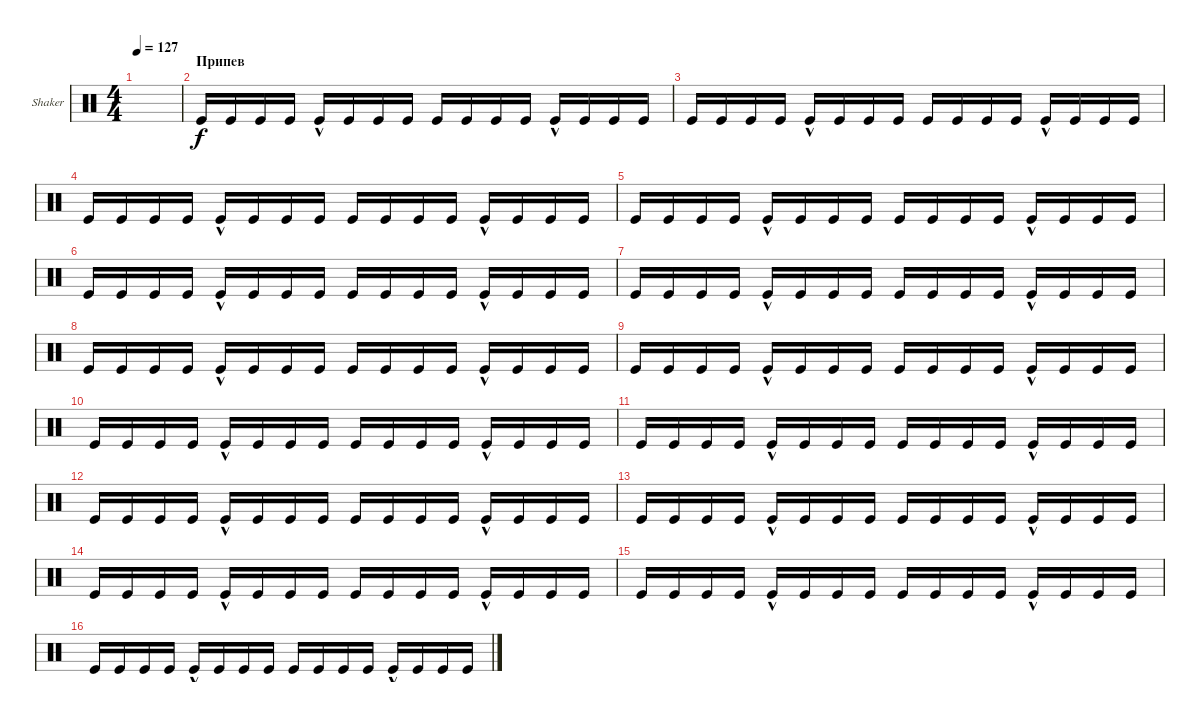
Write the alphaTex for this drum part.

\defaultSystemsLayout 4
\bracketExtendMode groupsimilarinstruments
\firstSystemTrackNameOrientation horizontal
\otherSystemsTrackNameOrientation horizontal
\track ("Shaker" "Shaker") {instrument percussion}
\staff {score}
\articulation defaults
\ts (4 4)
\tempo 127
\clef neutral
\scale
0.333333
\ks c
|
\section ("" "Припев")
\scale
0.333333 "Kick (hit)".16 "Kick (hit)".16 "Kick (hit)".16 "Kick (hit)".16 "Kick (hit)"{hac}.16 "Kick (hit)".16 "Kick (hit)".16 "Kick (hit)".16 "Kick (hit)".16 "Kick (hit)".16 "Kick (hit)".16 "Kick (hit)".16 "Kick (hit)"{hac}.16 "Kick (hit)".16 "Kick (hit)".16 "Kick (hit)".16 |
\scale
0.333333 "Kick (hit)".16 "Kick (hit)".16 "Kick (hit)".16 "Kick (hit)".16 "Kick (hit)"{hac}.16 "Kick (hit)".16 "Kick (hit)".16 "Kick (hit)".16 "Kick (hit)".16 "Kick (hit)".16 "Kick (hit)".16 "Kick (hit)".16 "Kick (hit)"{hac}.16 "Kick (hit)".16 "Kick (hit)".16 "Kick (hit)".16 |
\scale
0.333333 "Kick (hit)".16 "Kick (hit)".16 "Kick (hit)".16 "Kick (hit)".16 "Kick (hit)"{hac}.16 "Kick (hit)".16 "Kick (hit)".16 "Kick (hit)".16 "Kick (hit)".16 "Kick (hit)".16 "Kick (hit)".16 "Kick (hit)".16 "Kick (hit)"{hac}.16 "Kick (hit)".16 "Kick (hit)".16 "Kick (hit)".16 |
\scale
0.333333 "Kick (hit)".16 "Kick (hit)".16 "Kick (hit)".16 "Kick (hit)".16 "Kick (hit)"{hac}.16 "Kick (hit)".16 "Kick (hit)".16 "Kick (hit)".16 "Kick (hit)".16 "Kick (hit)".16 "Kick (hit)".16 "Kick (hit)".16 "Kick (hit)"{hac}.16 "Kick (hit)".16 "Kick (hit)".16 "Kick (hit)".16 |
\scale
0.333333 "Kick (hit)".16 "Kick (hit)".16 "Kick (hit)".16 "Kick (hit)".16 "Kick (hit)"{hac}.16 "Kick (hit)".16 "Kick (hit)".16 "Kick (hit)".16 "Kick (hit)".16 "Kick (hit)".16 "Kick (hit)".16 "Kick (hit)".16 "Kick (hit)"{hac}.16 "Kick (hit)".16 "Kick (hit)".16 "Kick (hit)".16 |
\scale
0.333333 "Kick (hit)".16 "Kick (hit)".16 "Kick (hit)".16 "Kick (hit)".16 "Kick (hit)"{hac}.16 "Kick (hit)".16 "Kick (hit)".16 "Kick (hit)".16 "Kick (hit)".16 "Kick (hit)".16 "Kick (hit)".16 "Kick (hit)".16 "Kick (hit)"{hac}.16 "Kick (hit)".16 "Kick (hit)".16 "Kick (hit)".16 |
\scale
0.333333 "Kick (hit)".16 "Kick (hit)".16 "Kick (hit)".16 "Kick (hit)".16 "Kick (hit)"{hac}.16 "Kick (hit)".16 "Kick (hit)".16 "Kick (hit)".16 "Kick (hit)".16 "Kick (hit)".16 "Kick (hit)".16 "Kick (hit)".16 "Kick (hit)"{hac}.16 "Kick (hit)".16 "Kick (hit)".16 "Kick (hit)".16 |
\scale
0.333333 "Kick (hit)".16 "Kick (hit)".16 "Kick (hit)".16 "Kick (hit)".16 "Kick (hit)"{hac}.16 "Kick (hit)".16 "Kick (hit)".16 "Kick (hit)".16 "Kick (hit)".16 "Kick (hit)".16 "Kick (hit)".16 "Kick (hit)".16 "Kick (hit)"{hac}.16 "Kick (hit)".16 "Kick (hit)".16 "Kick (hit)".16 |
\scale
0.333333 "Kick (hit)".16 "Kick (hit)".16 "Kick (hit)".16 "Kick (hit)".16 "Kick (hit)"{hac}.16 "Kick (hit)".16 "Kick (hit)".16 "Kick (hit)".16 "Kick (hit)".16 "Kick (hit)".16 "Kick (hit)".16 "Kick (hit)".16 "Kick (hit)"{hac}.16 "Kick (hit)".16 "Kick (hit)".16 "Kick (hit)".16 |
\scale
0.333333 "Kick (hit)".16 "Kick (hit)".16 "Kick (hit)".16 "Kick (hit)".16 "Kick (hit)"{hac}.16 "Kick (hit)".16 "Kick (hit)".16 "Kick (hit)".16 "Kick (hit)".16 "Kick (hit)".16 "Kick (hit)".16 "Kick (hit)".16 "Kick (hit)"{hac}.16 "Kick (hit)".16 "Kick (hit)".16 "Kick (hit)".16 |
\scale
0.333333 "Kick (hit)".16 "Kick (hit)".16 "Kick (hit)".16 "Kick (hit)".16 "Kick (hit)"{hac}.16 "Kick (hit)".16 "Kick (hit)".16 "Kick (hit)".16 "Kick (hit)".16 "Kick (hit)".16 "Kick (hit)".16 "Kick (hit)".16 "Kick (hit)"{hac}.16 "Kick (hit)".16 "Kick (hit)".16 "Kick (hit)".16 |
\scale
0.333333 "Kick (hit)".16 "Kick (hit)".16 "Kick (hit)".16 "Kick (hit)".16 "Kick (hit)"{hac}.16 "Kick (hit)".16 "Kick (hit)".16 "Kick (hit)".16 "Kick (hit)".16 "Kick (hit)".16 "Kick (hit)".16 "Kick (hit)".16 "Kick (hit)"{hac}.16 "Kick (hit)".16 "Kick (hit)".16 "Kick (hit)".16 |
\scale
0.333333 "Kick (hit)".16 "Kick (hit)".16 "Kick (hit)".16 "Kick (hit)".16 "Kick (hit)"{hac}.16 "Kick (hit)".16 "Kick (hit)".16 "Kick (hit)".16 "Kick (hit)".16 "Kick (hit)".16 "Kick (hit)".16 "Kick (hit)".16 "Kick (hit)"{hac}.16 "Kick (hit)".16 "Kick (hit)".16 "Kick (hit)".16 |
\scale
0.333333 "Kick (hit)".16 "Kick (hit)".16 "Kick (hit)".16 "Kick (hit)".16 "Kick (hit)"{hac}.16 "Kick (hit)".16 "Kick (hit)".16 "Kick (hit)".16 "Kick (hit)".16 "Kick (hit)".16 "Kick (hit)".16 "Kick (hit)".16 "Kick (hit)"{hac}.16 "Kick (hit)".16 "Kick (hit)".16 "Kick (hit)".16 |
\scale
0.333333 "Kick (hit)".16 "Kick (hit)".16 "Kick (hit)".16 "Kick (hit)".16 "Kick (hit)"{hac}.16 "Kick (hit)".16 "Kick (hit)".16 "Kick (hit)".16 "Kick (hit)".16 "Kick (hit)".16 "Kick (hit)".16 "Kick (hit)".16 "Kick (hit)"{hac}.16 "Kick (hit)".16 "Kick (hit)".16 "Kick (hit)".16
